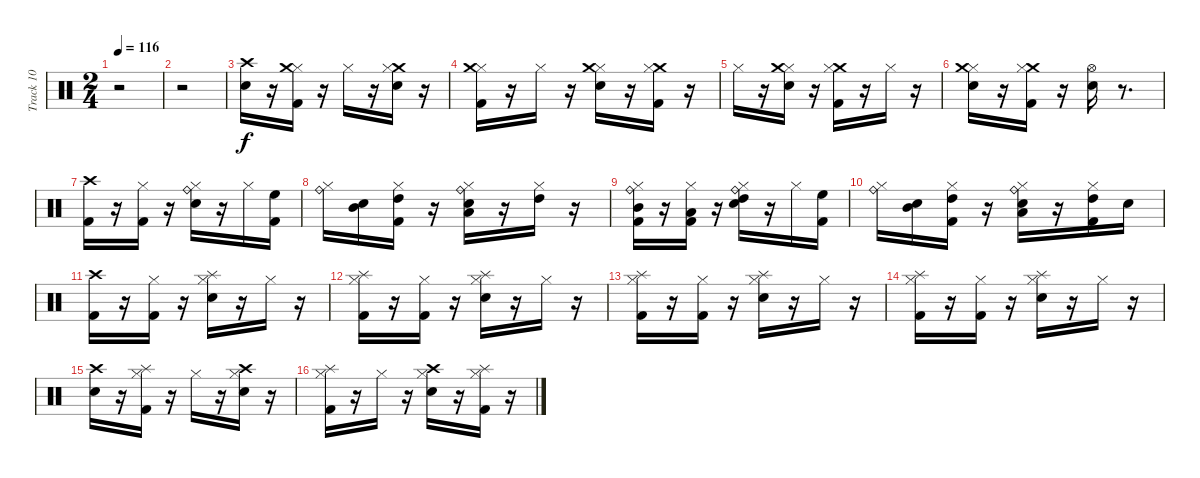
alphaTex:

\track ("Track 10" "Track 10") {instrument percussion}
\staff {score}
\articulation defaults
\ts (2 4)
\tempo 116
\clef neutral
\ks c
r.2{dy f} |
r.2 |
("Crash high (hit)" "Electric Snare (hit)").16 r.16 ("Hi-Hat (closed)" "Crash medium (hit)" "Kick (hit) 2").16 r.16 "Hi-Hat (closed)".16 r.16 ("Crash medium (hit)" "Electric Snare (hit)" "Hi-Hat (closed)").16 r.16 |
("Hi-Hat (closed)" "Crash medium (hit)" "Kick (hit) 2").16 r.16 "Hi-Hat (closed)".16 r.16 ("Hi-Hat (closed)" "Crash medium (hit)" "Electric Snare (hit)").16 r.16 ("Crash medium (hit)" "Kick (hit) 2" "Hi-Hat (closed)").16 r.16 |
"Hi-Hat (closed)".16 r.16 ("Hi-Hat (closed)" "Electric Snare (hit)" "Crash medium (hit)").16 r.16 ("Crash medium (hit)" "Kick (hit) 2" "Hi-Hat (closed)").16 r.16 "Hi-Hat (closed)".16 r.16 |
("Hi-Hat (closed)" "Crash medium (hit)" "Electric Snare (hit)").16 r.16 ("Crash medium (hit)" "Kick (hit) 2" "Hi-Hat (closed)").16 r.16 ("Hi-Hat (open)" "Electric Snare (hit)").16 r.8{d} |
("Crash high (hit)" "Kick (hit) 2").16 r.16 ("Hi-Hat (closed)" "Kick (hit) 2").16 r.16 ("Ride (bell)" "Electric Snare (hit)" "Hi-Hat (closed)").16 r.16 "Hi-Hat (closed)".16 ("High Floor Tom (hit)" "Kick (hit) 2").16 |
("Ride (bell)" "Hi-Hat (closed)").16 ("Mid Tom (hit)" "Electric Snare (hit)").16 ("High Tom (hit)" "Kick (hit) 2" "Hi-Hat (closed)").16 r.16 ("Hi-Hat (closed)" "Low Tom (hit)" "Electric Snare (hit)" "Ride (bell)").16 r.16 ("Hi-Hat (closed)" "High Tom (hit)").16 r.16 |
("Mid Tom (hit)" "Kick (hit) 2" "Hi-Hat (closed)" "Ride (bell)").16 r.16 ("Low Tom (hit)" "Kick (hit) 2" "Hi-Hat (closed)").16 r.16 ("High Tom (hit)" "Electric Snare (hit)" "Hi-Hat (closed)" "Ride (bell)").16 r.16 "Hi-Hat (closed)".16 ("Kick (hit) 2" "High Floor Tom (hit)").16 |
("Ride (bell)" "Hi-Hat (closed)").16 ("Electric Snare (hit)" "Mid Tom (hit)").16 ("High Tom (hit)" "Hi-Hat (closed)" "Kick (hit) 2").16 r.16 ("Low Tom (hit)" "Electric Snare (hit)" "Hi-Hat (closed)" "Ride (bell)").16 r.16 ("High Tom (hit)" "Kick (hit) 2" "Hi-Hat (closed)").16 "Electric Snare (hit)".16 |
("Crash high (hit)" "Kick (hit) 2").16 r.16 ("Kick (hit) 2" "Hi-Hat (closed)").16 r.16 ("Hi-Hat (closed)" "Splash (hit)" "Electric Snare (hit)").16 r.16 "Hi-Hat (closed)".16 r.16 |
("Hi-Hat (closed)" "Splash (hit)" "Kick (hit) 2").16 r.16 ("Hi-Hat (closed)" "Kick (hit) 2").16 r.16 ("Hi-Hat (closed)" "Electric Snare (hit)" "Splash (hit)").16 r.16 "Hi-Hat (closed)".16 r.16 |
("Splash (hit)" "Kick (hit) 2" "Hi-Hat (closed)").16 r.16 ("Kick (hit) 2" "Hi-Hat (closed)").16 r.16 ("Splash (hit)" "Electric Snare (hit)" "Hi-Hat (closed)").16 r.16 "Hi-Hat (closed)".16 r.16 |
("Kick (hit) 2" "Splash (hit)" "Hi-Hat (closed)").16 r.16 ("Kick (hit) 2" "Hi-Hat (closed)").16 r.16 ("Hi-Hat (closed)" "Splash (hit)" "Electric Snare (hit)").16 r.16 "Hi-Hat (closed)".16 r.16 |
("Crash high (hit)" "Electric Snare (hit)").16 r.16 ("Hi-Hat (closed)" "Kick (hit) 2" "Splash (hit)").16 r.16 "Hi-Hat (closed)".16 r.16 ("Crash high (hit)" "Electric Snare (hit)" "Hi-Hat (closed)").16 r.16 |
("Hi-Hat (closed)" "Splash (hit)" "Kick (hit) 2").16 r.16 "Hi-Hat (closed)".16 r.16 ("Hi-Hat (closed)" "Crash high (hit)" "Electric Snare (hit)").16 r.16 ("Hi-Hat (closed)" "Splash (hit)" "Kick (hit) 2").16 r.16
